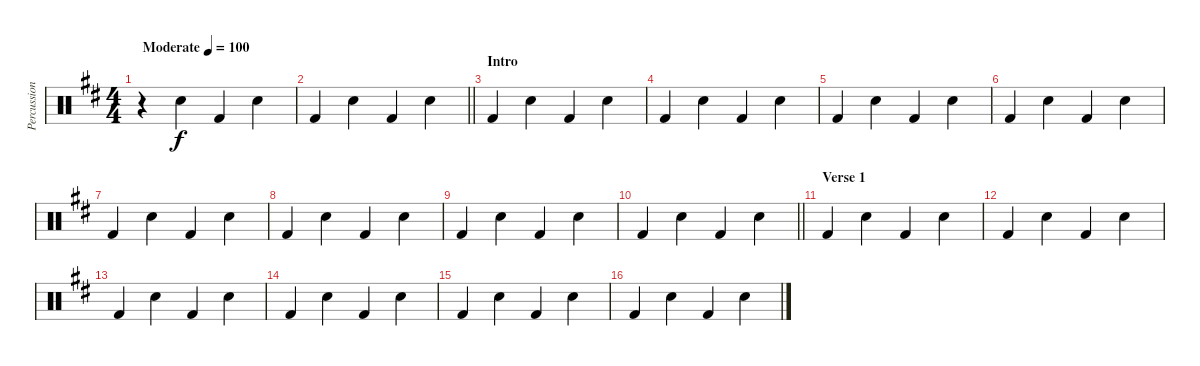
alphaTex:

\track ("Percussion" "Percussion") {instrument percussion}
\staff {score}
\articulation defaults
\ts (4 4)
\tempo (100 "Moderate")
\clef neutral
\ks d
r.4{dy f} "Electric Snare (hit)".4 "Kick (hit) 2".4 "Electric Snare (hit)".4 |
\barLineRight lightlight "Kick (hit) 2".4 "Electric Snare (hit)".4 "Kick (hit) 2".4 "Electric Snare (hit)".4
|
\section ("" "Intro")
"Kick (hit) 2".4 "Electric Snare (hit)".4 "Kick (hit) 2".4 "Electric Snare (hit)".4 |
"Kick (hit) 2".4 "Electric Snare (hit)".4 "Kick (hit) 2".4 "Electric Snare (hit)".4 |
"Kick (hit) 2".4 "Electric Snare (hit)".4 "Kick (hit) 2".4 "Electric Snare (hit)".4 |
"Kick (hit) 2".4 "Electric Snare (hit)".4 "Kick (hit) 2".4 "Electric Snare (hit)".4 |
"Kick (hit) 2".4 "Electric Snare (hit)".4 "Kick (hit) 2".4 "Electric Snare (hit)".4 |
"Kick (hit) 2".4 "Electric Snare (hit)".4 "Kick (hit) 2".4 "Electric Snare (hit)".4 |
"Kick (hit) 2".4 "Electric Snare (hit)".4 "Kick (hit) 2".4 "Electric Snare (hit)".4 |
\barLineRight lightlight "Kick (hit) 2".4 "Electric Snare (hit)".4 "Kick (hit) 2".4 "Electric Snare (hit)".4
|
\section ("" "Verse 1")
"Kick (hit) 2".4 "Electric Snare (hit)".4 "Kick (hit) 2".4 "Electric Snare (hit)".4 |
"Kick (hit) 2".4 "Electric Snare (hit)".4 "Kick (hit) 2".4 "Electric Snare (hit)".4 |
"Kick (hit) 2".4 "Electric Snare (hit)".4 "Kick (hit) 2".4 "Electric Snare (hit)".4 |
"Kick (hit) 2".4 "Electric Snare (hit)".4 "Kick (hit) 2".4 "Electric Snare (hit)".4 |
"Kick (hit) 2".4 "Electric Snare (hit)".4 "Kick (hit) 2".4 "Electric Snare (hit)".4 |
"Kick (hit) 2".4 "Electric Snare (hit)".4 "Kick (hit) 2".4 "Electric Snare (hit)".4
